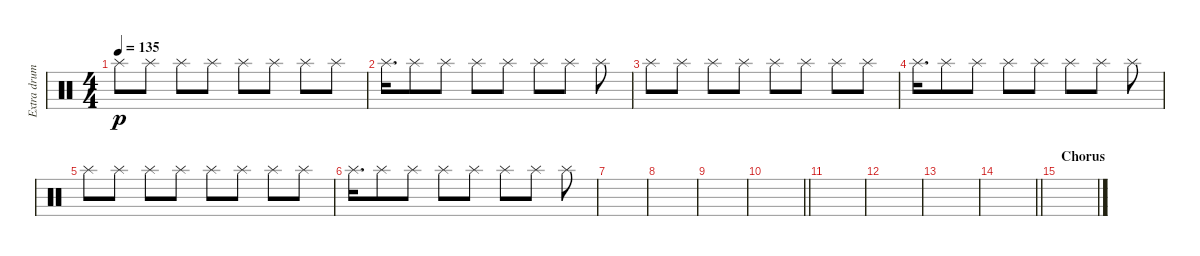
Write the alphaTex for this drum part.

\track ("Extra drums" "Extra drum") {instrument percussion}
\staff {score}
\articulation defaults
\ts (4 4)
\tempo 135
\clef neutral
\ks c "Splash (hit)".8{dy p} "Splash (hit)".8 "Splash (hit)".8 "Splash (hit)".8 "Splash (hit)".8 "Splash (hit)".8 "Splash (hit)".8 "Splash (hit)".8
|
"Splash (hit)".16{d} "Splash (hit)".8 "Splash (hit)".8 "Splash (hit)".8 "Splash (hit)".8 "Splash (hit)".8 "Splash (hit)".8 "Splash (hit)".8 |
"Splash (hit)".8 "Splash (hit)".8 "Splash (hit)".8 "Splash (hit)".8 "Splash (hit)".8 "Splash (hit)".8 "Splash (hit)".8 "Splash (hit)".8 |
"Splash (hit)".16{d} "Splash (hit)".8 "Splash (hit)".8 "Splash (hit)".8 "Splash (hit)".8 "Splash (hit)".8 "Splash (hit)".8 "Splash (hit)".8 |
"Splash (hit)".8 "Splash (hit)".8 "Splash (hit)".8 "Splash (hit)".8 "Splash (hit)".8 "Splash (hit)".8 "Splash (hit)".8 "Splash (hit)".8 |
"Splash (hit)".16{d} "Splash (hit)".8 "Splash (hit)".8 "Splash (hit)".8 "Splash (hit)".8 "Splash (hit)".8 "Splash (hit)".8 "Splash (hit)".8 |
|
|
|
\barLineRight lightlight
|
|
|
|
\barLineRight lightlight
|
\section ("" "Chorus")
